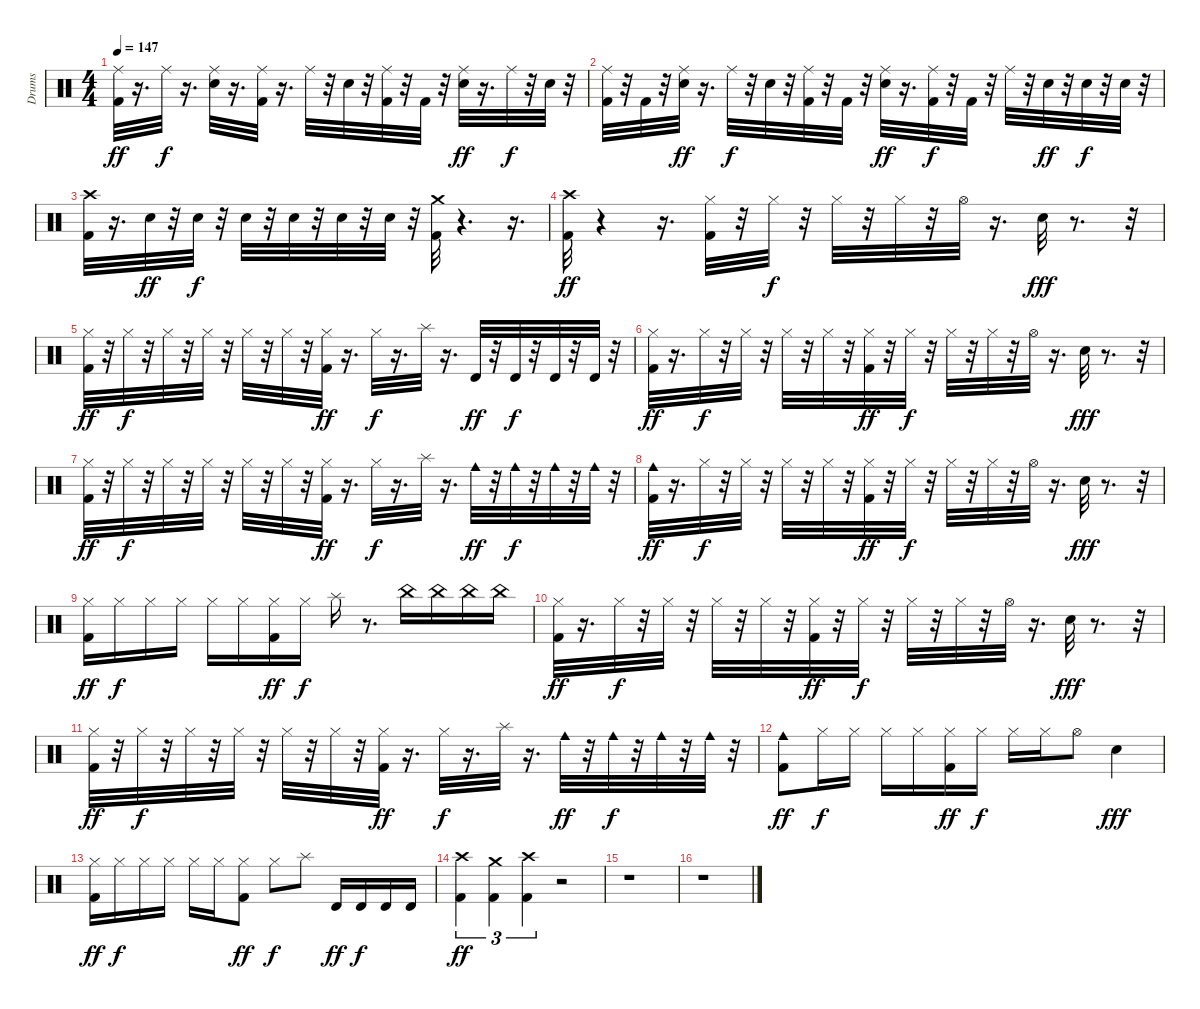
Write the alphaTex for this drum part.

\track ("Drums" "Drums") {instrument percussion}
\staff {score}
\articulation defaults
\ts (4 4)
\tempo 147
\clef neutral
\ks c
("Ride (middle)" "Kick (hit) 2").32{dy ff} r.16{d} "Ride (middle)".32{dy f} r.16{d} ("Ride (middle)" "Snare (hit) 2").32 r.16{d} ("Kick (hit) 2" "Ride (middle)").32 r.16{d} "Ride (middle)".32 r.32 "Snare (hit) 2".32 r.32 ("Ride (middle)" "Kick (hit) 2").32 r.32 "Kick (hit) 2".32 r.32 ("Ride (middle)" "Snare (hit) 2").32{dy ff} r.16{d} "Ride (middle)".32{dy f} r.32 "Snare (hit) 2".32 r.32 |
("Ride (middle)" "Kick (hit) 2").32 r.32 "Kick (hit) 2".32 r.32 ("Ride (middle)" "Snare (hit) 2").32{dy ff} r.16{d} "Ride (middle)".32{dy f} r.32 "Snare (hit) 2".32 r.32 ("Ride (middle)" "Kick (hit) 2").32 r.32 "Kick (hit) 2".32 r.32 ("Ride (middle)" "Snare (hit) 2").32{dy ff} r.16{d} ("Ride (middle)" "Kick (hit) 2").32{dy f} r.32 "Kick (hit) 2".32 r.32 "Ride (middle)".32 r.32 "Snare (hit) 2".32{dy ff} r.32 "Snare (hit) 2".32{dy f} r.32 "Snare (hit) 2".32 r.32 |
("Crash high (hit)" "Kick (hit) 2").32 r.16{d} "Snare (hit) 2".32{dy ff} r.32 "Snare (hit) 2".32{dy f} r.32 "Snare (hit) 2".32 r.32 "Snare (hit) 2".32 r.32 "Snare (hit) 2".32 r.32 "Snare (hit) 2".32 r.32 ("Crash medium (hit)" "Kick (hit) 2").32 r.4{d} r.16{d} |
("Crash high (hit)" "Kick (hit) 2").32{dy ff} r.4 r.16{d} ("Hi-Hat (closed)" "Kick (hit) 2").32 r.32 "Hi-Hat (closed)".32{dy f} r.32 "Hi-Hat (closed)".32 r.32 "Hi-Hat (closed)".32 r.32 "Hi-Hat (open)".32 r.16{d} "Electric Snare (hit)".32{dy fff} r.8{d} r.32 |
("Hi-Hat (closed)" "Kick (hit) 2").32{dy ff} r.32 "Hi-Hat (closed)".32{dy f} r.32 "Hi-Hat (closed)".32 r.32 "Hi-Hat (closed)".32 r.32 "Hi-Hat (closed)".32 r.32 "Hi-Hat (closed)".32 r.32 ("Kick (hit) 2" "Hi-Hat (closed)").32{dy ff} r.16{d} "Hi-Hat (closed)".32{dy f} r.16{d} "Splash (hit)".32 r.16{d} "Timbale high (hit)".32{dy ff} r.32 "Timbale high (hit)".32{dy f} r.32 "Timbale high (hit)".32 r.32 "Timbale high (hit)".32 r.32 |
("Hi-Hat (closed)" "Kick (hit) 2").32{dy ff} r.16{d} "Hi-Hat (closed)".32{dy f} r.32 "Hi-Hat (closed)".32 r.32 "Hi-Hat (closed)".32 r.32 "Hi-Hat (closed)".32 r.32 ("Hi-Hat (closed)" "Kick (hit) 2").32{dy ff} r.32 "Hi-Hat (closed)".32{dy f} r.32 "Hi-Hat (closed)".32 r.32 "Hi-Hat (closed)".32 r.32 "Hi-Hat (open)".32 r.16{d} "Electric Snare (hit)".32{dy fff} r.8{d} r.32 |
("Kick (hit) 2" "Hi-Hat (closed)").32{dy ff} r.32 "Hi-Hat (closed)".32{dy f} r.32 "Hi-Hat (closed)".32 r.32 "Hi-Hat (closed)".32 r.32 "Hi-Hat (closed)".32 r.32 "Hi-Hat (closed)".32 r.32 ("Hi-Hat (closed)" "Kick (hit) 2").32{dy ff} r.16{d} "Hi-Hat (closed)".32{dy f} r.16{d} "Splash (hit)".32 r.16{d} "Cowbell medium (hit)".32{dy ff} r.32 "Cowbell medium (hit)".32{dy f} r.32 "Cowbell medium (hit)".32 r.32 "Cowbell medium (hit)".32 r.32 |
("Cowbell medium (hit)" "Kick (hit) 2").32{dy ff} r.16{d} "Hi-Hat (closed)".32{dy f} r.32 "Hi-Hat (closed)".32 r.32 "Hi-Hat (closed)".32 r.32 "Hi-Hat (closed)".32 r.32 ("Hi-Hat (closed)" "Kick (hit) 2").32{dy ff} r.32 "Hi-Hat (closed)".32{dy f} r.32 "Hi-Hat (closed)".32 r.32 "Hi-Hat (closed)".32 r.32 "Hi-Hat (open)".32 r.16{d} "Electric Snare (hit)".32{dy fff} r.8{d} r.32 |
("Kick (hit) 2" "Hi-Hat (closed)").16{dy ff} "Hi-Hat (closed)".16{dy f} "Hi-Hat (closed)".16 "Hi-Hat (closed)".16 "Hi-Hat (closed)".16 "Hi-Hat (closed)".16 ("Hi-Hat (closed)" "Kick (hit) 2").16{dy ff} "Hi-Hat (closed)".16{dy f} "Splash (hit)".16 r.8{d} "China (hit)".16 "China (hit)".16 "China (hit)".16 "China (hit)".16 |
("Hi-Hat (closed)" "Kick (hit) 2").32{dy ff} r.16{d} "Hi-Hat (closed)".32{dy f} r.32 "Hi-Hat (closed)".32 r.32 "Hi-Hat (closed)".32 r.32 "Hi-Hat (closed)".32 r.32 ("Kick (hit) 2" "Hi-Hat (closed)").32{dy ff} r.32 "Hi-Hat (closed)".32{dy f} r.32 "Hi-Hat (closed)".32 r.32 "Hi-Hat (closed)".32 r.32 "Hi-Hat (open)".32 r.16{d} "Electric Snare (hit)".32{dy fff} r.8{d} r.32 |
("Hi-Hat (closed)" "Kick (hit) 2").32{dy ff} r.32 "Hi-Hat (closed)".32{dy f} r.32 "Hi-Hat (closed)".32 r.32 "Hi-Hat (closed)".32 r.32 "Hi-Hat (closed)".32 r.32 "Hi-Hat (closed)".32 r.32 ("Hi-Hat (closed)" "Kick (hit) 2").32{dy ff} r.16{d} "Hi-Hat (closed)".32{dy f} r.16{d} "Splash (hit)".32 r.16{d} "Cowbell medium (hit)".32{dy ff} r.32 "Cowbell medium (hit)".32{dy f} r.32 "Cowbell medium (hit)".32 r.32 "Cowbell medium (hit)".32 r.32 |
("Cowbell medium (hit)" "Kick (hit) 2").8{dy ff} "Hi-Hat (closed)".16{dy f} "Hi-Hat (closed)".16 "Hi-Hat (closed)".16 "Hi-Hat (closed)".16 ("Hi-Hat (closed)" "Kick (hit) 2").16{dy ff} "Hi-Hat (closed)".16{dy f} "Hi-Hat (closed)".16 "Hi-Hat (closed)".16 "Hi-Hat (open)".8 "Electric Snare (hit)".4{dy fff} |
("Kick (hit) 2" "Hi-Hat (closed)").16{dy ff} "Hi-Hat (closed)".16{dy f} "Hi-Hat (closed)".16 "Hi-Hat (closed)".16 "Hi-Hat (closed)".16 "Hi-Hat (closed)".16 ("Hi-Hat (closed)" "Kick (hit) 2").8{dy ff} "Hi-Hat (closed)".8{dy f} "Splash (hit)".8 "Timbale high (hit)".16{dy ff} "Timbale high (hit)".16{dy f} "Timbale high (hit)".16 "Timbale high (hit)".16 |
("Crash high (hit)" "Kick (hit) 2").4{tu (3 2) dy ff} ("Kick (hit) 2" "Crash medium (hit)").4{tu (3 2)} ("Crash high (hit)" "Kick (hit) 2").4{tu (3 2)} r.2 |
r.1 |
r.1
